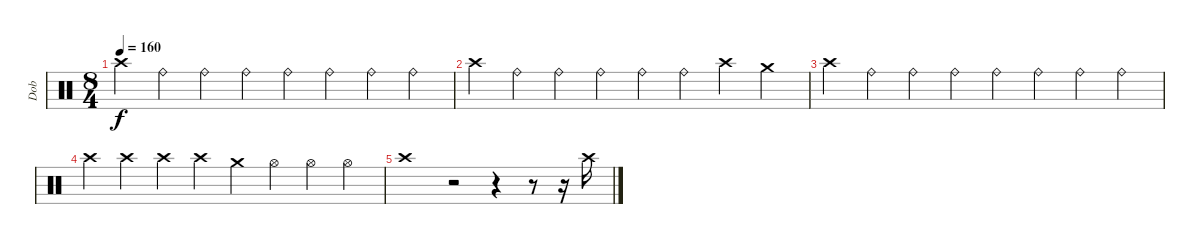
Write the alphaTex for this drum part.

\track ("Dob" "Dob") {instrument percussion}
\staff {score}
\articulation defaults
\ts (8 4)
\tempo 160
\clef neutral
\ks c "Crash high (hit)".4{dy f} "Ride (bell)".4 "Ride (bell)".4 "Ride (bell)".4 "Ride (bell)".4 "Ride (bell)".4 "Ride (bell)".4 "Ride (bell)".4
|
"Crash high (hit)".4 "Ride (bell)".4 "Ride (bell)".4 "Ride (bell)".4 "Ride (bell)".4 "Ride (bell)".4 "Crash high (hit)".4 "Crash medium (hit)".4 |
"Crash high (hit)".4 "Ride (bell)".4 "Ride (bell)".4 "Ride (bell)".4 "Ride (bell)".4 "Ride (bell)".4 "Ride (bell)".4 "Ride (bell)".4 |
"Crash high (hit)".4 "Crash high (hit)".4 "Crash high (hit)".4 "Crash high (hit)".4 "Crash medium (hit)".4 "Hi-Hat (open)".4 "Hi-Hat (open)".4 "Hi-Hat (open)".4 |
"Crash high (hit)".1 r.2 r.4 r.8 r.16 "Crash high (hit)".16
